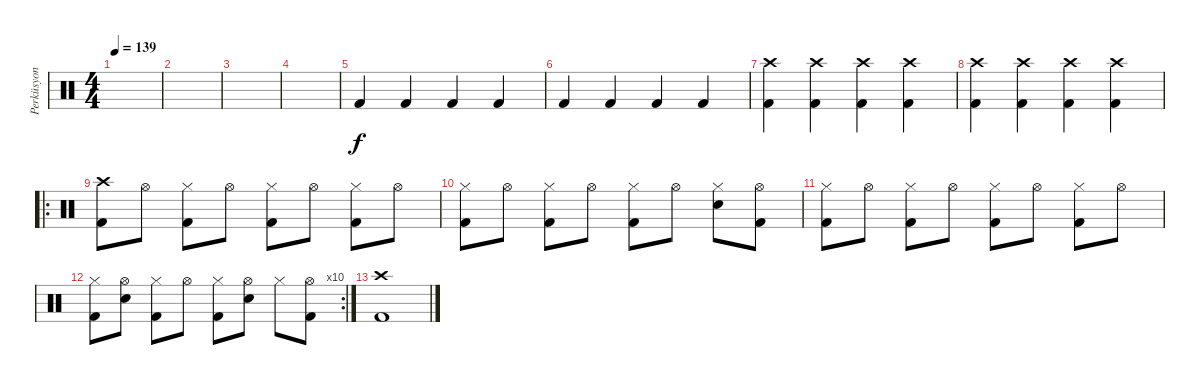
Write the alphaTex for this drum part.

\track ("Perküsyon" "Perküsyon") {instrument percussion}
\staff {score}
\articulation defaults
\ts (4 4)
\tempo 139
\clef neutral
\ks c
|
|
|
|
"Kick (hit) 2".4 "Kick (hit) 2".4 "Kick (hit) 2".4 "Kick (hit) 2".4 |
"Kick (hit) 2".4 "Kick (hit) 2".4 "Kick (hit) 2".4 "Kick (hit) 2".4 |
("Crash high (hit)" "Kick (hit) 2").4 ("Crash high (hit)" "Kick (hit) 2").4 ("Crash high (hit)" "Kick (hit) 2").4 ("Crash high (hit)" "Kick (hit) 2").4 |
("Crash high (hit)" "Kick (hit) 2").4 ("Crash high (hit)" "Kick (hit) 2").4 ("Crash high (hit)" "Kick (hit) 2").4 ("Crash high (hit)" "Kick (hit) 2").4 |
\ro
("Crash high (hit)" "Kick (hit) 2").8 "Hi-Hat (open)".8 ("Hi-Hat (closed)" "Kick (hit) 2").8 "Hi-Hat (open)".8 ("Hi-Hat (closed)" "Kick (hit) 2").8 "Hi-Hat (open)".8 ("Hi-Hat (closed)" "Kick (hit) 2").8 "Hi-Hat (open)".8 |
("Hi-Hat (closed)" "Kick (hit) 2").8 "Hi-Hat (open)".8 ("Hi-Hat (closed)" "Kick (hit) 2").8 "Hi-Hat (open)".8 ("Hi-Hat (closed)" "Kick (hit) 2").8 "Hi-Hat (open)".8 ("Hi-Hat (closed)" "Snare (hit) 2").8 ("Hi-Hat (open)" "Kick (hit) 2").8 |
("Hi-Hat (closed)" "Kick (hit) 2").8 "Hi-Hat (open)".8 ("Hi-Hat (closed)" "Kick (hit) 2").8 "Hi-Hat (open)".8 ("Hi-Hat (closed)" "Kick (hit) 2").8 "Hi-Hat (open)".8 ("Hi-Hat (closed)" "Kick (hit) 2").8 "Hi-Hat (open)".8 |
\rc 10
("Hi-Hat (closed)" "Kick (hit) 2").8 ("Hi-Hat (open)" "Snare (hit) 2").8 ("Hi-Hat (closed)" "Kick (hit) 2").8 "Hi-Hat (open)".8 ("Hi-Hat (closed)" "Kick (hit) 2").8 ("Hi-Hat (open)" "Snare (hit) 2").8 "Hi-Hat (closed)".8 ("Hi-Hat (open)" "Kick (hit) 2").8 |
("Crash high (hit)" "Kick (hit) 2").1
